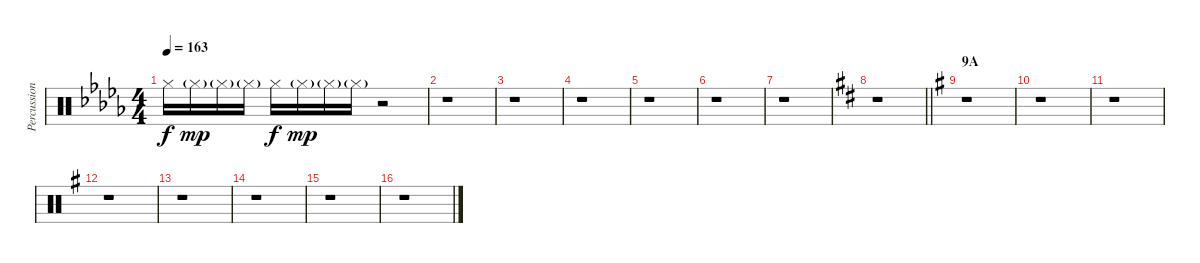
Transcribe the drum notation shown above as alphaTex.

\track ("Percussions" "Percussion") {instrument percussion}
\staff {score}
\articulation defaults
\ts (4 4)
\tempo 163
\clef neutral
\ks db "Hi-Hat (closed)".16{dy f} "Hi-Hat (closed)"{g}.16{dy mp} "Hi-Hat (closed)"{g}.16 "Hi-Hat (closed)"{g}.16 "Hi-Hat (closed)".16{dy f} "Hi-Hat (closed)"{g}.16{dy mp} "Hi-Hat (closed)"{g}.16 "Hi-Hat (closed)"{g}.16
r.2 |
r.1 |
r.1 |
r.1 |
r.1 |
r.1 |
r.1 |
\barLineRight lightlight
\ks d
r.1 |
\section ("" "9A")
\ks g
r.1 |
r.1 |
r.1 |
r.1 |
r.1 |
r.1 |
r.1 |
r.1
